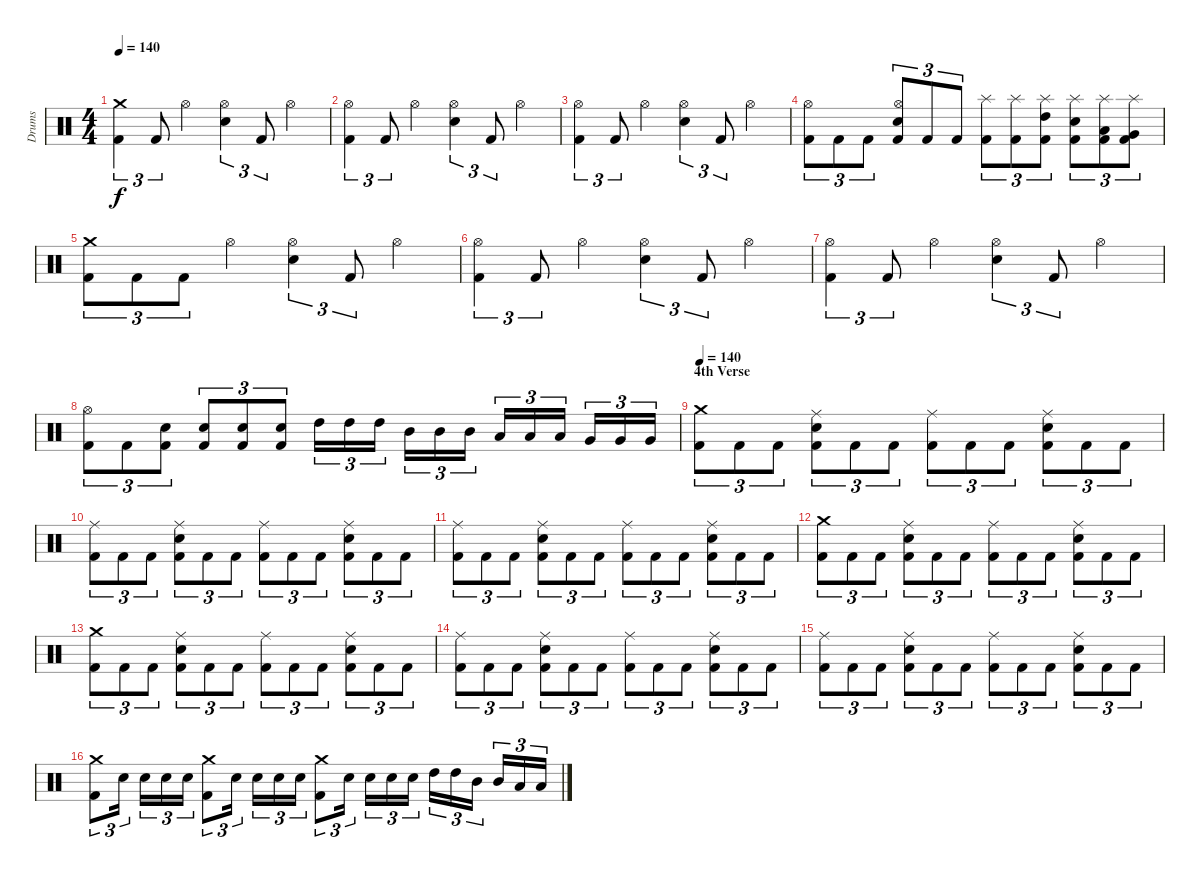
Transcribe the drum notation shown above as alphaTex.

\track ("Drums" "Drums") {instrument percussion}
\staff {score}
\articulation defaults
\ts (4 4)
\tempo 140
\clef neutral
\ks c
("Kick (hit) 2" "Crash medium (hit)").4{tu (3 2) dy f} "Kick (hit) 2".8{tu (3 2)} "Hi-Hat (open)".4 ("Electric Snare (hit)" "Hi-Hat (open)").4{tu (3 2)} "Kick (hit) 2".8{tu (3 2)} "Hi-Hat (open)".4 |
("Kick (hit) 2" "Hi-Hat (open)").4{tu (3 2)} "Kick (hit) 2".8{tu (3 2)} "Hi-Hat (open)".4 ("Electric Snare (hit)" "Hi-Hat (open)").4{tu (3 2)} "Kick (hit) 2".8{tu (3 2)} "Hi-Hat (open)".4 |
("Kick (hit) 2" "Hi-Hat (open)").4{tu (3 2)} "Kick (hit) 2".8{tu (3 2)} "Hi-Hat (open)".4 ("Electric Snare (hit)" "Hi-Hat (open)").4{tu (3 2)} "Kick (hit) 2".8{tu (3 2)} "Hi-Hat (open)".4 |
("Kick (hit) 2" "Hi-Hat (open)").8{tu (3 2)} "Kick (hit) 2".8{tu (3 2)} "Kick (hit) 2".8{tu (3 2)} ("Kick (hit) 2" "Electric Snare (hit)" "Hi-Hat (open)").8{tu (3 2)} "Kick (hit) 2".8{tu (3 2)} "Kick (hit) 2".8{tu (3 2)} ("Kick (hit) 2" "Splash (hit)").8{tu (3 2)} ("Kick (hit) 2" "Splash (hit)").8{tu (3 2)} ("Kick (hit) 2" "High Tom (hit)" "Splash (hit)").8{tu (3 2)} ("Kick (hit) 2" "Electric Snare (hit)" "Splash (hit)").8{tu (3 2)} ("Kick (hit) 2" "Low Tom (hit)" "Splash (hit)").8{tu (3 2)} ("Kick (hit) 2" "Very Low Tom (hit)" "Splash (hit)").8{tu (3 2)} |
("Kick (hit) 2" "Crash medium (hit)").8{tu (3 2)} "Kick (hit) 2".8{tu (3 2)} "Kick (hit) 2".8{tu (3 2)} "Hi-Hat (open)".4 ("Electric Snare (hit)" "Hi-Hat (open)").4{tu (3 2)} "Kick (hit) 2".8{tu (3 2)} "Hi-Hat (open)".4 |
("Kick (hit) 2" "Hi-Hat (open)").4{tu (3 2)} "Kick (hit) 2".8{tu (3 2)} "Hi-Hat (open)".4 ("Electric Snare (hit)" "Hi-Hat (open)").4{tu (3 2)} "Kick (hit) 2".8{tu (3 2)} "Hi-Hat (open)".4 |
("Kick (hit) 2" "Hi-Hat (open)").4{tu (3 2)} "Kick (hit) 2".8{tu (3 2)} "Hi-Hat (open)".4 ("Electric Snare (hit)" "Hi-Hat (open)").4{tu (3 2)} "Kick (hit) 2".8{tu (3 2)} "Hi-Hat (open)".4 |
("Kick (hit) 2" "Hi-Hat (open)").8{tu (3 2)} "Kick (hit) 2".8{tu (3 2)} ("Kick (hit) 2" "Electric Snare (hit)").8{tu (3 2)} ("Kick (hit) 2" "Electric Snare (hit)").8{tu (3 2)} ("Kick (hit) 2" "Electric Snare (hit)").8{tu (3 2)} ("Kick (hit) 2" "Electric Snare (hit)").8{tu (3 2)} "High Tom (hit)".16{tu (3 2)} "High Tom (hit)".16{tu (3 2)} "High Tom (hit)".16{tu (3 2)} "Mid Tom (hit)".16{tu (3 2)} "Mid Tom (hit)".16{tu (3 2)} "Mid Tom (hit)".16{tu (3 2)} "Low Tom (hit)".16{tu (3 2)} "Low Tom (hit)".16{tu (3 2)} "Low Tom (hit)".16{tu (3 2)} "Very Low Tom (hit)".16{tu (3 2)} "Very Low Tom (hit)".16{tu (3 2)} "Very Low Tom (hit)".16{tu (3 2)} |
\section ("" "4th Verse")
\tempo 140
("Kick (hit) 2" "Crash medium (hit)").8{tu (3 2)} "Kick (hit) 2".8{tu (3 2)} "Kick (hit) 2".8{tu (3 2)} ("Kick (hit) 2" "Electric Snare (hit)" "Ride (middle)").8{tu (3 2)} "Kick (hit) 2".8{tu (3 2)} "Kick (hit) 2".8{tu (3 2)} ("Kick (hit) 2" "Ride (middle)").8{tu (3 2)} "Kick (hit) 2".8{tu (3 2)} "Kick (hit) 2".8{tu (3 2)} ("Kick (hit) 2" "Electric Snare (hit)" "Ride (middle)").8{tu (3 2)} "Kick (hit) 2".8{tu (3 2)} "Kick (hit) 2".8{tu (3 2)} |
("Kick (hit) 2" "Ride (middle)").8{tu (3 2)} "Kick (hit) 2".8{tu (3 2)} "Kick (hit) 2".8{tu (3 2)} ("Kick (hit) 2" "Electric Snare (hit)" "Ride (middle)").8{tu (3 2)} "Kick (hit) 2".8{tu (3 2)} "Kick (hit) 2".8{tu (3 2)} ("Kick (hit) 2" "Ride (middle)").8{tu (3 2)} "Kick (hit) 2".8{tu (3 2)} "Kick (hit) 2".8{tu (3 2)} ("Kick (hit) 2" "Electric Snare (hit)" "Ride (middle)").8{tu (3 2)} "Kick (hit) 2".8{tu (3 2)} "Kick (hit) 2".8{tu (3 2)} |
("Kick (hit) 2" "Ride (middle)").8{tu (3 2)} "Kick (hit) 2".8{tu (3 2)} "Kick (hit) 2".8{tu (3 2)} ("Kick (hit) 2" "Electric Snare (hit)" "Ride (middle)").8{tu (3 2)} "Kick (hit) 2".8{tu (3 2)} "Kick (hit) 2".8{tu (3 2)} ("Kick (hit) 2" "Ride (middle)").8{tu (3 2)} "Kick (hit) 2".8{tu (3 2)} "Kick (hit) 2".8{tu (3 2)} ("Kick (hit) 2" "Electric Snare (hit)" "Ride (middle)").8{tu (3 2)} "Kick (hit) 2".8{tu (3 2)} "Kick (hit) 2".8{tu (3 2)} |
("Kick (hit) 2" "Crash medium (hit)").8{tu (3 2)} "Kick (hit) 2".8{tu (3 2)} "Kick (hit) 2".8{tu (3 2)} ("Kick (hit) 2" "Electric Snare (hit)" "Ride (middle)").8{tu (3 2)} "Kick (hit) 2".8{tu (3 2)} "Kick (hit) 2".8{tu (3 2)} ("Kick (hit) 2" "Ride (middle)").8{tu (3 2)} "Kick (hit) 2".8{tu (3 2)} "Kick (hit) 2".8{tu (3 2)} ("Kick (hit) 2" "Electric Snare (hit)" "Ride (middle)").8{tu (3 2)} "Kick (hit) 2".8{tu (3 2)} "Kick (hit) 2".8{tu (3 2)} |
("Kick (hit) 2" "Crash medium (hit)").8{tu (3 2)} "Kick (hit) 2".8{tu (3 2)} "Kick (hit) 2".8{tu (3 2)} ("Kick (hit) 2" "Electric Snare (hit)" "Ride (middle)").8{tu (3 2)} "Kick (hit) 2".8{tu (3 2)} "Kick (hit) 2".8{tu (3 2)} ("Kick (hit) 2" "Ride (middle)").8{tu (3 2)} "Kick (hit) 2".8{tu (3 2)} "Kick (hit) 2".8{tu (3 2)} ("Kick (hit) 2" "Electric Snare (hit)" "Ride (middle)").8{tu (3 2)} "Kick (hit) 2".8{tu (3 2)} "Kick (hit) 2".8{tu (3 2)} |
("Kick (hit) 2" "Ride (middle)").8{tu (3 2)} "Kick (hit) 2".8{tu (3 2)} "Kick (hit) 2".8{tu (3 2)} ("Kick (hit) 2" "Electric Snare (hit)" "Ride (middle)").8{tu (3 2)} "Kick (hit) 2".8{tu (3 2)} "Kick (hit) 2".8{tu (3 2)} ("Kick (hit) 2" "Ride (middle)").8{tu (3 2)} "Kick (hit) 2".8{tu (3 2)} "Kick (hit) 2".8{tu (3 2)} ("Kick (hit) 2" "Electric Snare (hit)" "Ride (middle)").8{tu (3 2)} "Kick (hit) 2".8{tu (3 2)} "Kick (hit) 2".8{tu (3 2)} |
("Kick (hit) 2" "Ride (middle)").8{tu (3 2)} "Kick (hit) 2".8{tu (3 2)} "Kick (hit) 2".8{tu (3 2)} ("Kick (hit) 2" "Electric Snare (hit)" "Ride (middle)").8{tu (3 2)} "Kick (hit) 2".8{tu (3 2)} "Kick (hit) 2".8{tu (3 2)} ("Kick (hit) 2" "Ride (middle)").8{tu (3 2)} "Kick (hit) 2".8{tu (3 2)} "Kick (hit) 2".8{tu (3 2)} ("Kick (hit) 2" "Electric Snare (hit)" "Ride (middle)").8{tu (3 2)} "Kick (hit) 2".8{tu (3 2)} "Kick (hit) 2".8{tu (3 2)} |
("Kick (hit) 2" "Crash medium (hit)").8{tu (3 2)} "Electric Snare (hit)".16{tu (3 2)} "Electric Snare (hit)".16{tu (3 2)} "Electric Snare (hit)".16{tu (3 2)} "Electric Snare (hit)".16{tu (3 2)} ("Kick (hit) 2" "Crash medium (hit)").8{tu (3 2)} "Electric Snare (hit)".16{tu (3 2)} "Electric Snare (hit)".16{tu (3 2)} "Electric Snare (hit)".16{tu (3 2)} "Electric Snare (hit)".16{tu (3 2)} ("Kick (hit) 2" "Crash medium (hit)").8{tu (3 2)} "Electric Snare (hit)".16{tu (3 2)} "Electric Snare (hit)".16{tu (3 2)} "Electric Snare (hit)".16{tu (3 2)} "Electric Snare (hit)".16{tu (3 2)} "High Tom (hit)".16{tu (3 2)} "High Tom (hit)".16{tu (3 2)} "Mid Tom (hit)".16{tu (3 2)} "Mid Tom (hit)".16{tu (3 2)} "Low Tom (hit)".16{tu (3 2)} "Low Tom (hit)".16{tu (3 2)}
